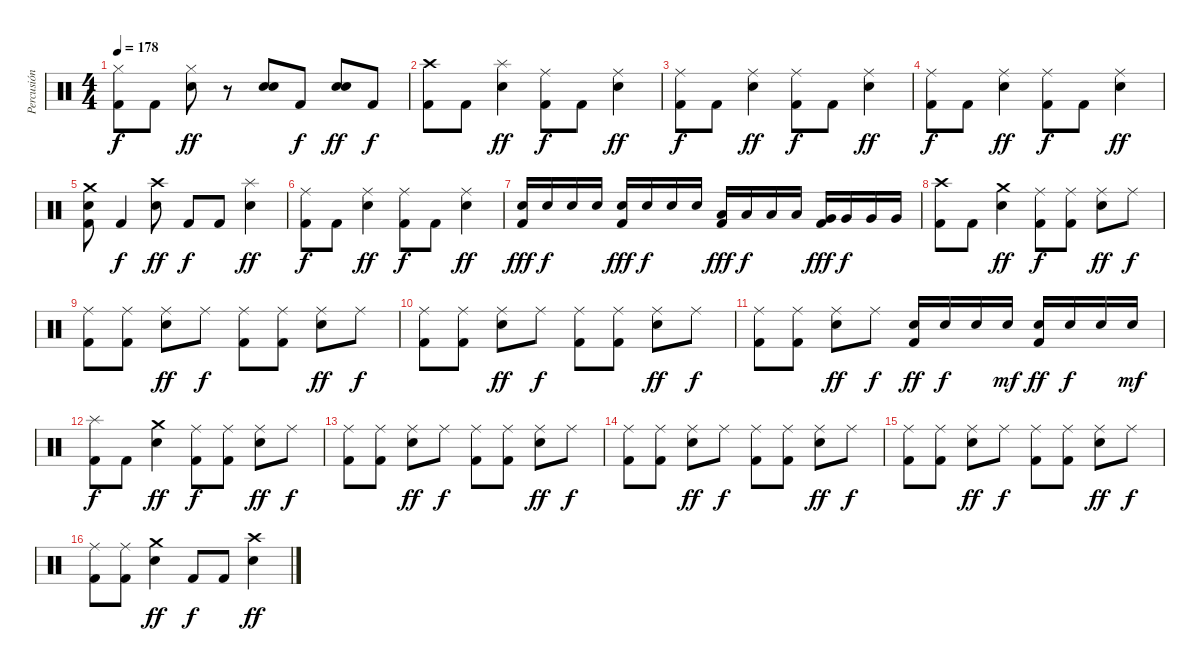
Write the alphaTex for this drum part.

\track ("Percusión" "Percusión") {instrument percussion}
\staff {score}
\articulation defaults
\ts (4 4)
\tempo 178
\clef neutral
\ks c
("Hi-Hat (closed)" "Kick (hit) 2").8{dy f} "Kick (hit) 2".8 ("Hi-Hat (closed)" "Snare (hit) 2").8{dy ff} r.8 ("Snare (hit) 2" "Snare (hit) 2").8 "Kick (hit) 2".8{dy f} ("Snare (hit) 2" "Snare (hit) 2").8{dy ff} "Kick (hit) 2".8{dy f} |
("Crash high (hit)" "Kick (hit) 2").8 "Kick (hit) 2".8 ("Splash (hit)" "Snare (hit) 2").4{dy ff} ("Ride (middle)" "Kick (hit) 2").8{dy f} "Kick (hit) 2".8 ("Ride (middle)" "Snare (hit) 2").4{dy ff} |
("Ride (middle)" "Kick (hit) 2").8{dy f} "Kick (hit) 2".8 ("Ride (middle)" "Snare (hit) 2").4{dy ff} ("Ride (middle)" "Kick (hit) 2").8{dy f} "Kick (hit) 2".8 ("Ride (middle)" "Snare (hit) 2").4{dy ff} |
("Ride (middle)" "Kick (hit) 2").8{dy f} "Kick (hit) 2".8 ("Ride (middle)" "Snare (hit) 2").4{dy ff} ("Ride (middle)" "Kick (hit) 2").8{dy f} "Kick (hit) 2".8 ("Ride (middle)" "Snare (hit) 2").4{dy ff} |
("Kick (hit) 2" "Snare (hit) 2" "Crash medium (hit)").8 "Kick (hit) 2".4{dy f} ("Snare (hit) 2" "Crash high (hit)").8{dy ff} "Kick (hit) 2".8{dy f} "Kick (hit) 2".8 ("Splash (hit)" "Snare (hit) 2").4{dy ff} |
("Ride (middle)" "Kick (hit) 2").8{dy f} "Kick (hit) 2".8 ("Ride (middle)" "Snare (hit) 2").4{dy ff} ("Ride (middle)" "Kick (hit) 2").8{dy f} "Kick (hit) 2".8 ("Ride (middle)" "Snare (hit) 2").4{dy ff} |
("Snare (hit) 2" "Kick (hit) 2").16{dy fff} "Snare (hit) 2".16{dy f} "Snare (hit) 2".16 "Snare (hit) 2".16 ("Snare (hit) 2" "Kick (hit) 2").16{dy fff} "Snare (hit) 2".16{dy f} "Snare (hit) 2".16 "Snare (hit) 2".16 ("Low Tom (hit)" "Kick (hit) 2").16{dy fff} "Low Tom (hit)".16{dy f} "Low Tom (hit)".16 "Low Tom (hit)".16 ("Very Low Tom (hit)" "Kick (hit) 2").16{dy fff} "Very Low Tom (hit)".16{dy f} "Very Low Tom (hit)".16 "Very Low Tom (hit)".16 |
("Crash high (hit)" "Kick (hit) 2").8 "Kick (hit) 2".8 ("Crash medium (hit)" "Snare (hit) 2").4{dy ff} ("Ride (middle)" "Kick (hit) 2").8{dy f} ("Ride (middle)" "Kick (hit) 2").8 ("Ride (middle)" "Snare (hit) 2").8{dy ff} "Ride (middle)".8{dy f} |
("Ride (middle)" "Kick (hit) 2").8 ("Ride (middle)" "Kick (hit) 2").8 ("Ride (middle)" "Snare (hit) 2").8{dy ff} "Ride (middle)".8{dy f} ("Ride (middle)" "Kick (hit) 2").8 ("Ride (middle)" "Kick (hit) 2").8 ("Ride (middle)" "Snare (hit) 2").8{dy ff} "Ride (middle)".8{dy f} |
("Ride (middle)" "Kick (hit) 2").8 ("Ride (middle)" "Kick (hit) 2").8 ("Ride (middle)" "Snare (hit) 2").8{dy ff} "Ride (middle)".8{dy f} ("Ride (middle)" "Kick (hit) 2").8 ("Ride (middle)" "Kick (hit) 2").8 ("Ride (middle)" "Snare (hit) 2").8{dy ff} "Ride (middle)".8{dy f} |
("Ride (middle)" "Kick (hit) 2").8 ("Ride (middle)" "Kick (hit) 2").8 ("Ride (middle)" "Snare (hit) 2").8{dy ff} "Ride (middle)".8{dy f} ("Kick (hit) 2" "Snare (hit) 2").16{dy ff} "Snare (hit) 2".16{dy f} "Snare (hit) 2".16 "Snare (hit) 2".16{dy mf} ("Kick (hit) 2" "Snare (hit) 2").16{dy ff} "Snare (hit) 2".16{dy f} "Snare (hit) 2".16 "Snare (hit) 2".16{dy mf} |
("Splash (hit)" "Kick (hit) 2").8{dy f} "Kick (hit) 2".8 ("Crash medium (hit)" "Snare (hit) 2").4{dy ff} ("Ride (middle)" "Kick (hit) 2").8{dy f} ("Ride (middle)" "Kick (hit) 2").8 ("Ride (middle)" "Snare (hit) 2").8{dy ff} "Ride (middle)".8{dy f} |
("Ride (middle)" "Kick (hit) 2").8 ("Ride (middle)" "Kick (hit) 2").8 ("Ride (middle)" "Snare (hit) 2").8{dy ff} "Ride (middle)".8{dy f} ("Ride (middle)" "Kick (hit) 2").8 ("Ride (middle)" "Kick (hit) 2").8 ("Ride (middle)" "Snare (hit) 2").8{dy ff} "Ride (middle)".8{dy f} |
("Ride (middle)" "Kick (hit) 2").8 ("Ride (middle)" "Kick (hit) 2").8 ("Ride (middle)" "Snare (hit) 2").8{dy ff} "Ride (middle)".8{dy f} ("Ride (middle)" "Kick (hit) 2").8 ("Ride (middle)" "Kick (hit) 2").8 ("Ride (middle)" "Snare (hit) 2").8{dy ff} "Ride (middle)".8{dy f} |
("Ride (middle)" "Kick (hit) 2").8 ("Ride (middle)" "Kick (hit) 2").8 ("Ride (middle)" "Snare (hit) 2").8{dy ff} "Ride (middle)".8{dy f} ("Ride (middle)" "Kick (hit) 2").8 ("Ride (middle)" "Kick (hit) 2").8 ("Ride (middle)" "Snare (hit) 2").8{dy ff} "Ride (middle)".8{dy f} |
("Ride (middle)" "Kick (hit) 2").8 ("Ride (middle)" "Kick (hit) 2").8 ("Crash medium (hit)" "Snare (hit) 2").4{dy ff} "Kick (hit) 2".8{dy f} "Kick (hit) 2".8 ("Crash high (hit)" "Snare (hit) 2").4{dy ff}
